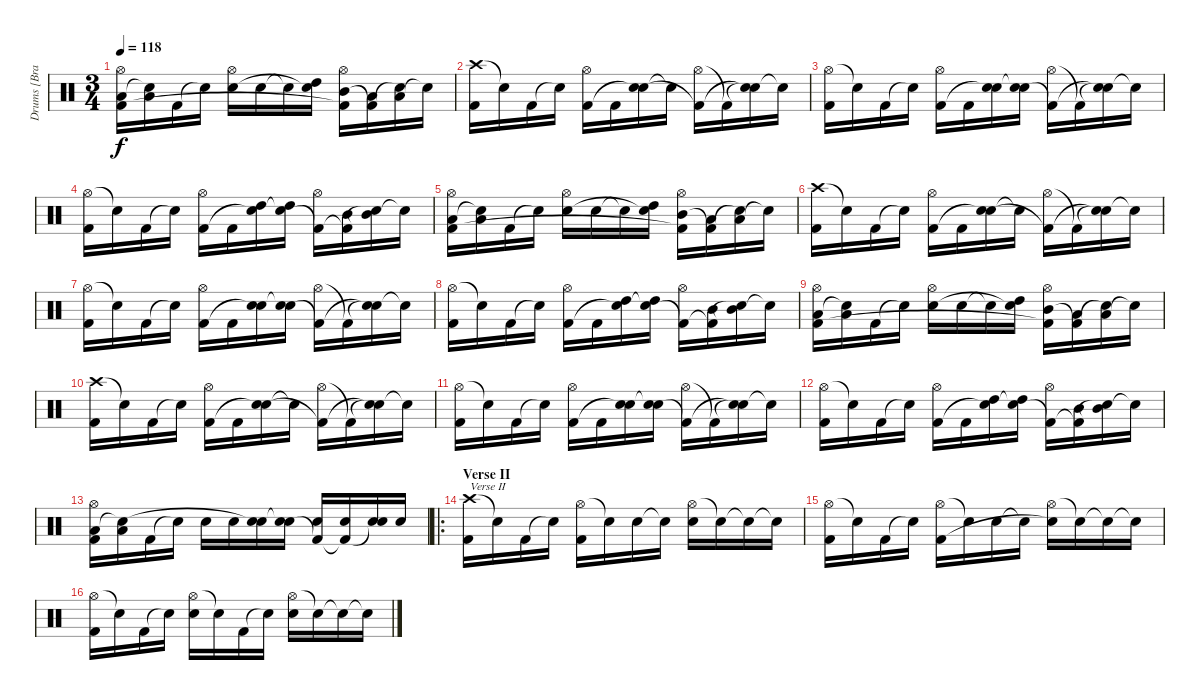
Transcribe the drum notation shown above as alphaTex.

\track ("Drums [Brann Dailor]" "Drums [Bra") {instrument percussion}
\staff {score}
\articulation defaults
\ts (3 4)
\tempo 118
\clef neutral
\ks c
("Hi-Hat (open)" "Low Tom (hit)" "Kick (hit) 2").16{dy f} ("Low Tom (hit)" "Snare (hit)"{t}).16 "Kick (hit) 2".16 "Snare (hit)"{t}.16 ("Hi-Hat (open)" "Electric Snare (hit)").16 "Electric Snare (hit)".16 "Snare (hit)"{t}.16 ("High Tom (hit)" "Snare (hit)"{t}).16 ("Hi-Hat (open)" "Mid Tom (hit)" "Kick (hit) 2"{t}).16 ("Low Tom (hit)" "Kick (hit) 2"{t}).16 ("Low Tom (hit)" "Snare (hit)"{t}).16 "Snare (hit)"{t}.16 |
("Crash high (hit)" "Kick (hit) 2").16 "Snare (hit)"{t}.16 "Kick (hit) 2".16 "Snare (hit)"{t}.16 ("Hi-Hat (open)" "Kick (hit) 2").16 "Kick (hit) 2".16 ("Electric Snare (hit)" "Snare (hit)"{t}).16 "Snare (hit)"{t}.16 ("Hi-Hat (open)" "Kick (hit) 2"{t}).16 "Kick (hit) 2"{t}.16 ("Electric Snare (hit)"{t} "Snare (hit)"{t}).16 "Snare (hit)"{t}.16 |
("Hi-Hat (open)" "Kick (hit) 2").16 "Snare (hit)"{t}.16 "Kick (hit) 2".16 "Snare (hit)"{t}.16 ("Hi-Hat (open)" "Kick (hit) 2").16 "Kick (hit) 2".16 ("Electric Snare (hit)" "Snare (hit)"{t}).16 ("Electric Snare (hit)" "Snare (hit)"{t}).16 ("Hi-Hat (open)" "Kick (hit) 2"{t}).16 "Kick (hit) 2"{t}.16 ("Electric Snare (hit)"{t} "Snare (hit)"{t}).16 "Snare (hit)"{t}.16 |
("Hi-Hat (open)" "Kick (hit) 2").16 "Snare (hit)"{t}.16 "Kick (hit) 2".16 "Snare (hit)"{t}.16 ("Hi-Hat (open)" "Kick (hit) 2").16 "Kick (hit) 2".16 ("High Tom (hit)" "Snare (hit)"{t}).16 ("High Tom (hit)" "Snare (hit)"{t}).16 ("Hi-Hat (open)" "Kick (hit) 2"{t}).16 ("Mid Tom (hit)" "Kick (hit) 2"{t}).16 ("Mid Tom (hit)" "Snare (hit)"{t}).16 "Snare (hit)"{t}.16 |
("Hi-Hat (open)" "Low Tom (hit)" "Kick (hit) 2").16 ("Low Tom (hit)" "Snare (hit)"{t}).16 "Kick (hit) 2".16 "Snare (hit)"{t}.16 ("Hi-Hat (open)" "Electric Snare (hit)").16 "Electric Snare (hit)".16 "Snare (hit)"{t}.16 ("High Tom (hit)" "Snare (hit)"{t}).16 ("Hi-Hat (open)" "Mid Tom (hit)" "Kick (hit) 2"{t}).16 ("Low Tom (hit)" "Kick (hit) 2"{t}).16 ("Low Tom (hit)" "Snare (hit)"{t}).16 "Snare (hit)"{t}.16 |
("Crash high (hit)" "Kick (hit) 2").16 "Snare (hit)"{t}.16 "Kick (hit) 2".16 "Snare (hit)"{t}.16 ("Hi-Hat (open)" "Kick (hit) 2").16 "Kick (hit) 2".16 ("Electric Snare (hit)" "Snare (hit)"{t}).16 "Snare (hit)"{t}.16 ("Hi-Hat (open)" "Kick (hit) 2"{t}).16 "Kick (hit) 2"{t}.16 ("Electric Snare (hit)"{t} "Snare (hit)"{t}).16 "Snare (hit)"{t}.16 |
("Hi-Hat (open)" "Kick (hit) 2").16 "Snare (hit)"{t}.16 "Kick (hit) 2".16 "Snare (hit)"{t}.16 ("Hi-Hat (open)" "Kick (hit) 2").16 "Kick (hit) 2".16 ("Electric Snare (hit)" "Snare (hit)"{t}).16 ("Electric Snare (hit)" "Snare (hit)"{t}).16 ("Hi-Hat (open)" "Kick (hit) 2"{t}).16 "Kick (hit) 2"{t}.16 ("Electric Snare (hit)"{t} "Snare (hit)"{t}).16 "Snare (hit)"{t}.16 |
("Hi-Hat (open)" "Kick (hit) 2").16 "Snare (hit)"{t}.16 "Kick (hit) 2".16 "Snare (hit)"{t}.16 ("Hi-Hat (open)" "Kick (hit) 2").16 "Kick (hit) 2".16 ("High Tom (hit)" "Snare (hit)"{t}).16 ("High Tom (hit)" "Snare (hit)"{t}).16 ("Hi-Hat (open)" "Kick (hit) 2"{t}).16 ("Mid Tom (hit)" "Kick (hit) 2"{t}).16 ("Mid Tom (hit)" "Snare (hit)"{t}).16 "Snare (hit)"{t}.16 |
("Hi-Hat (open)" "Low Tom (hit)" "Kick (hit) 2").16 ("Low Tom (hit)" "Snare (hit)"{t}).16 "Kick (hit) 2".16 "Snare (hit)"{t}.16 ("Hi-Hat (open)" "Electric Snare (hit)").16 "Electric Snare (hit)".16 "Snare (hit)"{t}.16 ("High Tom (hit)" "Snare (hit)"{t}).16 ("Hi-Hat (open)" "Mid Tom (hit)" "Kick (hit) 2"{t}).16 ("Low Tom (hit)" "Kick (hit) 2"{t}).16 ("Low Tom (hit)" "Snare (hit)"{t}).16 "Snare (hit)"{t}.16 |
("Crash high (hit)" "Kick (hit) 2").16 "Snare (hit)"{t}.16 "Kick (hit) 2".16 "Snare (hit)"{t}.16 ("Hi-Hat (open)" "Kick (hit) 2").16 "Kick (hit) 2".16 ("Electric Snare (hit)" "Snare (hit)"{t}).16 "Snare (hit)"{t}.16 ("Hi-Hat (open)" "Kick (hit) 2"{t}).16 "Kick (hit) 2"{t}.16 ("Electric Snare (hit)"{t} "Snare (hit)"{t}).16 "Snare (hit)"{t}.16 |
("Hi-Hat (open)" "Kick (hit) 2").16 "Snare (hit)"{t}.16 "Kick (hit) 2".16 "Snare (hit)"{t}.16 ("Hi-Hat (open)" "Kick (hit) 2").16 "Kick (hit) 2".16 ("Electric Snare (hit)" "Snare (hit)"{t}).16 ("Electric Snare (hit)" "Snare (hit)"{t}).16 ("Hi-Hat (open)" "Kick (hit) 2"{t}).16 "Kick (hit) 2"{t}.16 ("Electric Snare (hit)"{t} "Snare (hit)"{t}).16 "Snare (hit)"{t}.16 |
("Hi-Hat (open)" "Kick (hit) 2").16 "Snare (hit)"{t}.16 "Kick (hit) 2".16 "Snare (hit)"{t}.16 ("Hi-Hat (open)" "Kick (hit) 2").16 "Kick (hit) 2".16 ("High Tom (hit)" "Snare (hit)"{t}).16 ("High Tom (hit)" "Snare (hit)"{t}).16 ("Hi-Hat (open)" "Kick (hit) 2"{t}).16 ("Mid Tom (hit)" "Kick (hit) 2"{t}).16 ("Mid Tom (hit)" "Snare (hit)"{t}).16 "Snare (hit)"{t}.16 |
("Hi-Hat (open)" "Low Tom (hit)" "Kick (hit) 2").16 ("Low Tom (hit)" "Snare (hit)"{t}).16 "Kick (hit) 2".16 "Snare (hit)"{t}.16 "Electric Snare (hit)".16 "Electric Snare (hit)".16 ("Electric Snare (hit)" "Snare (hit)"{t}).16 ("Electric Snare (hit)" "Snare (hit)"{t}).16 ("Electric Snare (hit)" "Kick (hit) 2"{t}).16 ("Electric Snare (hit)" "Kick (hit) 2"{t}).16 ("Electric Snare (hit)" "Snare (hit)"{t}).16 "Electric Snare (hit)".16 |
\ro
\section ("" "Verse II")
("Crash high (hit)" "Kick (hit) 2").16{txt "Verse II"} "Snare (hit)"{t}.16 "Kick (hit) 2".16 "Snare (hit)"{t}.16 ("Hi-Hat (open)" "Kick (hit) 2").16 "Snare (hit)"{t}.16 "Electric Snare (hit)".16 "Snare (hit)"{t}.16 ("Hi-Hat (open)" "Electric Snare (hit)").16 "Snare (hit)"{t}.16 "Snare (hit)"{t}.16 "Snare (hit)"{t}.16 |
("Hi-Hat (open)" "Kick (hit) 2").16 "Snare (hit)"{t}.16 "Kick (hit) 2".16 "Snare (hit)"{t}.16 ("Hi-Hat (open)" "Kick (hit) 2").16 "Snare (hit)"{t}.16 "Electric Snare (hit)".16 "Snare (hit)"{t}.16 ("Hi-Hat (open)" "Electric Snare (hit)"{t}).16 "Snare (hit)"{t}.16 "Snare (hit)"{t}.16 "Snare (hit)"{t}.16 |
("Hi-Hat (open)" "Kick (hit) 2").16 "Snare (hit)"{t}.16 "Kick (hit) 2".16 "Snare (hit)"{t}.16 ("Hi-Hat (open)" "Electric Snare (hit)").16 "Snare (hit)"{t}.16 "Kick (hit) 2".16 "Snare (hit)"{t}.16 ("Hi-Hat (open)" "Electric Snare (hit)").16 "Snare (hit)"{t}.16 "Snare (hit)"{t}.16 "Snare (hit)"{t}.16
